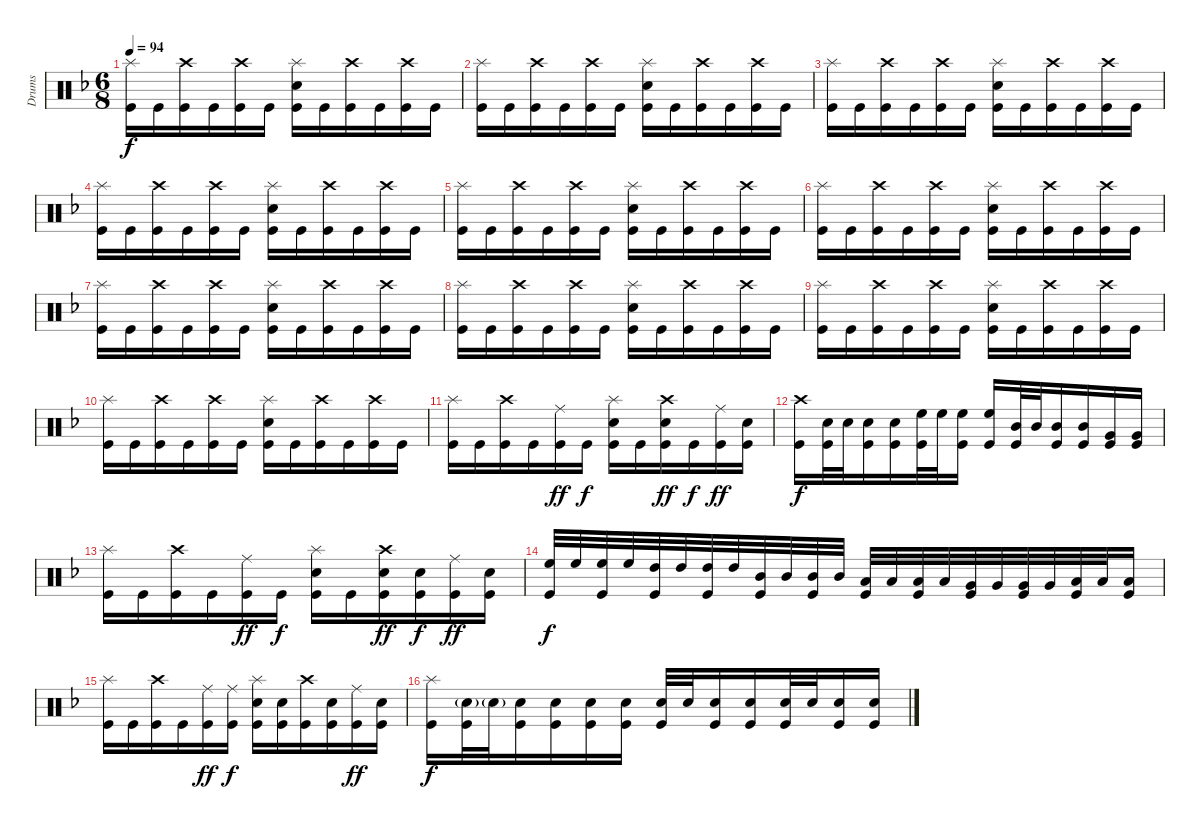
\track ("Drums" "Drums") {instrument percussion bank 10}
\staff {score}
\articulation defaults
\ts (6 8)
\tempo 94
\clef neutral
\ks dminor
("Splash (hit)" "Kick (hit)").16{dy f} "Kick (hit)".16 ("Crash high (hit)" "Kick (hit)").16 "Kick (hit)".16 ("Crash high (hit)" "Kick (hit)").16 "Kick (hit)".16 ("Splash (hit)" "Electric Snare (hit)" "Kick (hit)").16 "Kick (hit)".16 ("Crash high (hit)" "Kick (hit)").16 "Kick (hit)".16 ("Crash high (hit)" "Kick (hit)").16 "Kick (hit)".16 |
("Splash (hit)" "Kick (hit)").16 "Kick (hit)".16 ("Crash high (hit)" "Kick (hit)").16 "Kick (hit)".16 ("Crash high (hit)" "Kick (hit)").16 "Kick (hit)".16 ("Splash (hit)" "Electric Snare (hit)" "Kick (hit)").16 "Kick (hit)".16 ("Crash high (hit)" "Kick (hit)").16 "Kick (hit)".16 ("Crash high (hit)" "Kick (hit)").16 "Kick (hit)".16 |
("Splash (hit)" "Kick (hit)").16 "Kick (hit)".16 ("Crash high (hit)" "Kick (hit)").16 "Kick (hit)".16 ("Crash high (hit)" "Kick (hit)").16 "Kick (hit)".16 ("Splash (hit)" "Electric Snare (hit)" "Kick (hit)").16 "Kick (hit)".16 ("Crash high (hit)" "Kick (hit)").16 "Kick (hit)".16 ("Crash high (hit)" "Kick (hit)").16 "Kick (hit)".16 |
("Splash (hit)" "Kick (hit)").16 "Kick (hit)".16 ("Crash high (hit)" "Kick (hit)").16 "Kick (hit)".16 ("Crash high (hit)" "Kick (hit)").16 "Kick (hit)".16 ("Splash (hit)" "Electric Snare (hit)" "Kick (hit)").16 "Kick (hit)".16 ("Crash high (hit)" "Kick (hit)").16 "Kick (hit)".16 ("Crash high (hit)" "Kick (hit)").16 "Kick (hit)".16 |
("Splash (hit)" "Kick (hit)").16 "Kick (hit)".16 ("Crash high (hit)" "Kick (hit)").16 "Kick (hit)".16 ("Crash high (hit)" "Kick (hit)").16 "Kick (hit)".16 ("Splash (hit)" "Electric Snare (hit)" "Kick (hit)").16 "Kick (hit)".16 ("Crash high (hit)" "Kick (hit)").16 "Kick (hit)".16 ("Crash high (hit)" "Kick (hit)").16 "Kick (hit)".16 |
("Splash (hit)" "Kick (hit)").16 "Kick (hit)".16 ("Crash high (hit)" "Kick (hit)").16 "Kick (hit)".16 ("Crash high (hit)" "Kick (hit)").16 "Kick (hit)".16 ("Splash (hit)" "Electric Snare (hit)" "Kick (hit)").16 "Kick (hit)".16 ("Crash high (hit)" "Kick (hit)").16 "Kick (hit)".16 ("Crash high (hit)" "Kick (hit)").16 "Kick (hit)".16 |
("Splash (hit)" "Kick (hit)").16 "Kick (hit)".16 ("Crash high (hit)" "Kick (hit)").16 "Kick (hit)".16 ("Crash high (hit)" "Kick (hit)").16 "Kick (hit)".16 ("Splash (hit)" "Electric Snare (hit)" "Kick (hit)").16 "Kick (hit)".16 ("Crash high (hit)" "Kick (hit)").16 "Kick (hit)".16 ("Crash high (hit)" "Kick (hit)").16 "Kick (hit)".16 |
("Splash (hit)" "Kick (hit)").16 "Kick (hit)".16 ("Crash high (hit)" "Kick (hit)").16 "Kick (hit)".16 ("Crash high (hit)" "Kick (hit)").16 "Kick (hit)".16 ("Splash (hit)" "Electric Snare (hit)" "Kick (hit)").16 "Kick (hit)".16 ("Crash high (hit)" "Kick (hit)").16 "Kick (hit)".16 ("Crash high (hit)" "Kick (hit)").16 "Kick (hit)".16 |
("Splash (hit)" "Kick (hit)").16 "Kick (hit)".16 ("Crash high (hit)" "Kick (hit)").16 "Kick (hit)".16 ("Crash high (hit)" "Kick (hit)").16 "Kick (hit)".16 ("Splash (hit)" "Electric Snare (hit)" "Kick (hit)").16 "Kick (hit)".16 ("Crash high (hit)" "Kick (hit)").16 "Kick (hit)".16 ("Crash high (hit)" "Kick (hit)").16 "Kick (hit)".16 |
("Splash (hit)" "Kick (hit)").16 "Kick (hit)".16 ("Crash high (hit)" "Kick (hit)").16 "Kick (hit)".16 ("Crash high (hit)" "Kick (hit)").16 "Kick (hit)".16 ("Splash (hit)" "Electric Snare (hit)" "Kick (hit)").16 "Kick (hit)".16 ("Crash high (hit)" "Kick (hit)").16 "Kick (hit)".16 ("Crash high (hit)" "Kick (hit)").16 "Kick (hit)".16 |
("Splash (hit)" "Kick (hit)").16 "Kick (hit)".16 ("Crash high (hit)" "Kick (hit)").16 "Kick (hit)".16 ("Ride (middle)" "Kick (hit)").16{dy ff} "Kick (hit)".16{dy f} ("Splash (hit)" "Electric Snare (hit)" "Kick (hit)").16 "Kick (hit)".16 ("Crash high (hit)" "Electric Snare (hit)" "Kick (hit)").16{dy ff} "Kick (hit)".16{dy f} ("Ride (middle)" "Kick (hit)").16{dy ff} ("Electric Snare (hit)" "Kick (hit)").16 |
("Crash high (hit)" "Kick (hit)").16{dy f} ("Electric Snare (hit)" "Kick (hit)").32 "Electric Snare (hit)".32 ("Electric Snare (hit)" "Kick (hit)").16 ("Electric Snare (hit)" "Kick (hit)").16 ("High Floor Tom (hit)" "Kick (hit)").32 "High Floor Tom (hit)".32 ("High Floor Tom (hit)" "Kick (hit)").16 ("High Floor Tom (hit)" "Kick (hit)").16 ("Mid Tom (hit)" "Kick (hit)").32 "Mid Tom (hit)".32 ("Mid Tom (hit)" "Kick (hit)").16 ("Mid Tom (hit)" "Kick (hit)").16 ("Very Low Tom (hit)" "Kick (hit)").16 ("Very Low Tom (hit)" "Kick (hit)").16 |
("Splash (hit)" "Kick (hit)").16 "Kick (hit)".16 ("Crash high (hit)" "Kick (hit)").16 "Kick (hit)".16 ("Ride (middle)" "Kick (hit)").16{dy ff} "Kick (hit)".16{dy f} ("Splash (hit)" "Electric Snare (hit)" "Kick (hit)").16 "Kick (hit)".16 ("Crash high (hit)" "Electric Snare (hit)" "Kick (hit)").16{dy ff} ("Electric Snare (hit)" "Kick (hit)").16{dy f} ("Ride (middle)" "Kick (hit)").16{dy ff} ("Electric Snare (hit)" "Kick (hit)").16 |
("High Floor Tom (hit)" "Kick (hit)").32{dy f} "High Floor Tom (hit)".32 ("High Floor Tom (hit)" "Kick (hit)").32 "High Floor Tom (hit)".32 ("High Tom (hit)" "Kick (hit)").32 "High Tom (hit)".32 ("High Tom (hit)" "Kick (hit)").32 "High Tom (hit)".32 ("Mid Tom (hit)" "Kick (hit)").32 "Mid Tom (hit)".32 ("Mid Tom (hit)" "Kick (hit)").32 "Mid Tom (hit)".32 ("Low Tom (hit)" "Kick (hit)").32 "Low Tom (hit)".32 ("Low Tom (hit)" "Kick (hit)").32 "Low Tom (hit)".32 ("Very Low Tom (hit)" "Kick (hit)").32 "Very Low Tom (hit)".32 ("Very Low Tom (hit)" "Kick (hit)").32 "Very Low Tom (hit)".32 ("Low Floor Tom (hit)" "Kick (hit)").32 "Low Floor Tom (hit)".32 ("Low Floor Tom (hit)" "Kick (hit)").16 |
("Splash (hit)" "Kick (hit)").16 "Kick (hit)".16 ("Crash high (hit)" "Kick (hit)").16 "Kick (hit)".16 ("Ride (middle)" "Kick (hit)").16{dy ff} ("Ride (middle)" "Kick (hit)").16{dy f} ("Splash (hit)" "Electric Snare (hit)" "Kick (hit)").16 ("Electric Snare (hit)" "Kick (hit)").16 ("Crash high (hit)" "Kick (hit)").16 ("Electric Snare (hit)" "Kick (hit)").16 ("Ride (middle)" "Kick (hit)").16{dy ff} ("Electric Snare (hit)" "Kick (hit)").16 |
("Splash (hit)" "Kick (hit)").16{dy f} ("Electric Snare (hit)"{g} "Kick (hit)").32 "Electric Snare (hit)"{g}.32 ("Electric Snare (hit)" "Kick (hit)").16 ("Electric Snare (hit)" "Kick (hit)").16 ("Electric Snare (hit)" "Kick (hit)").16 ("Electric Snare (hit)" "Kick (hit)").16 ("Electric Snare (hit)" "Kick (hit)").32 "Electric Snare (hit)".32 ("Electric Snare (hit)" "Kick (hit)").16 ("Electric Snare (hit)" "Kick (hit)").16 ("Electric Snare (hit)" "Kick (hit)").32 "Electric Snare (hit)".32 ("Electric Snare (hit)" "Kick (hit)").16 ("Electric Snare (hit)" "Kick (hit)").16
